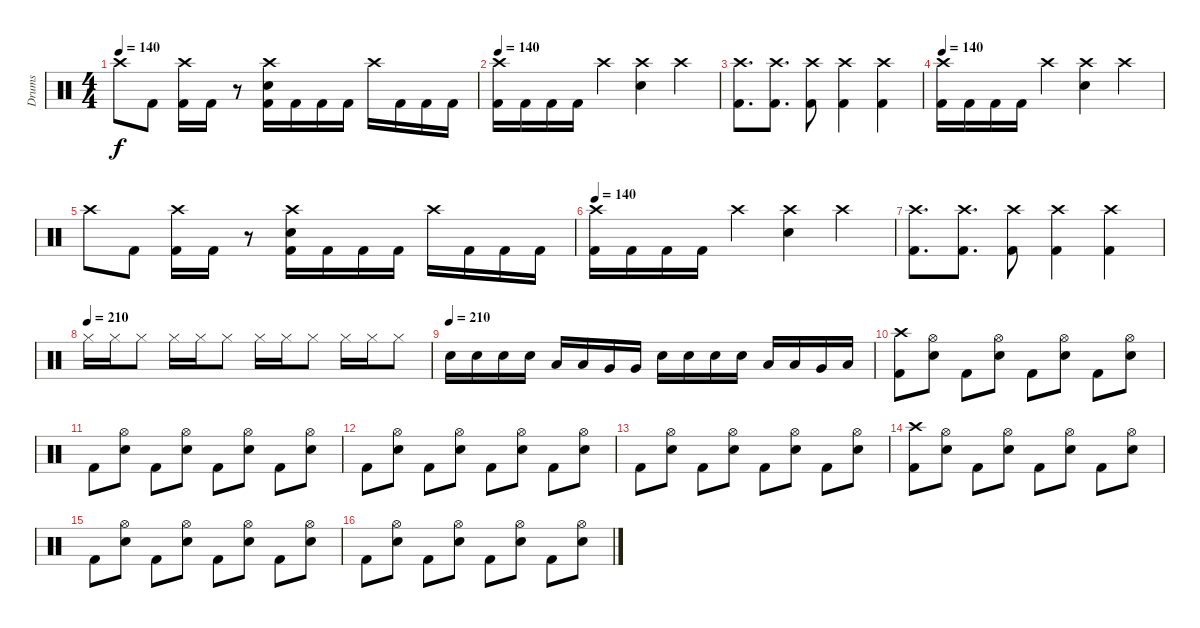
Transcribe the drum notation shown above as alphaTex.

\track ("Drums" "Drums") {instrument percussion}
\staff {score}
\articulation defaults
\ts (4 4)
\tempo 140
\clef neutral
\ks c "Crash high (hit)".8{dy f} "Kick (hit) 2".8
("Crash high (hit)" "Kick (hit) 2").16 "Kick (hit) 2".16 r.8 ("Crash high (hit)" "Electric Snare (hit)" "Kick (hit) 2").16 "Kick (hit) 2".16 "Kick (hit) 2".16 "Kick (hit) 2".16 "Crash high (hit)".16 "Kick (hit) 2".16 "Kick (hit) 2".16 "Kick (hit) 2".16 |
\tempo 140
("Crash high (hit)" "Kick (hit) 2").16 "Kick (hit) 2".16 "Kick (hit) 2".16 "Kick (hit) 2".16 "Crash high (hit)".4 ("Crash high (hit)" "Electric Snare (hit)").4 "Crash high (hit)".4 |
("Crash high (hit)" "Kick (hit) 2").8{d} ("Crash high (hit)" "Kick (hit) 2").8{d} ("Crash high (hit)" "Kick (hit) 2").8 ("Crash high (hit)" "Kick (hit) 2").4 ("Crash high (hit)" "Kick (hit) 2").4 |
\tempo 140
("Crash high (hit)" "Kick (hit) 2").16 "Kick (hit) 2".16 "Kick (hit) 2".16 "Kick (hit) 2".16 "Crash high (hit)".4 ("Crash high (hit)" "Electric Snare (hit)").4 "Crash high (hit)".4 |
"Crash high (hit)".8 "Kick (hit) 2".8 ("Crash high (hit)" "Kick (hit) 2").16 "Kick (hit) 2".16 r.8 ("Crash high (hit)" "Electric Snare (hit)" "Kick (hit) 2").16 "Kick (hit) 2".16 "Kick (hit) 2".16 "Kick (hit) 2".16 "Crash high (hit)".16 "Kick (hit) 2".16 "Kick (hit) 2".16 "Kick (hit) 2".16 |
\tempo 140
("Crash high (hit)" "Kick (hit) 2").16 "Kick (hit) 2".16 "Kick (hit) 2".16 "Kick (hit) 2".16 "Crash high (hit)".4 ("Crash high (hit)" "Electric Snare (hit)").4 "Crash high (hit)".4 |
("Crash high (hit)" "Kick (hit) 2").8{d} ("Crash high (hit)" "Kick (hit) 2").8{d} ("Crash high (hit)" "Kick (hit) 2").8 ("Crash high (hit)" "Kick (hit) 2").4 ("Crash high (hit)" "Kick (hit) 2").4 |
\tempo (210)
"Hi-Hat (closed)".16 "Hi-Hat (closed)".16 "Hi-Hat (closed)".8 "Hi-Hat (closed)".16 "Hi-Hat (closed)".16 "Hi-Hat (closed)".8 "Hi-Hat (closed)".16 "Hi-Hat (closed)".16 "Hi-Hat (closed)".8 "Hi-Hat (closed)".16 "Hi-Hat (closed)".16 "Hi-Hat (closed)".8 |
\tempo (210)
"Electric Snare (hit)".16 "Electric Snare (hit)".16 "Electric Snare (hit)".16 "Electric Snare (hit)".16 "Low Tom (hit)".16 "Low Tom (hit)".16 "Very Low Tom (hit)".16 "Very Low Tom (hit)".16 "Electric Snare (hit)".16 "Electric Snare (hit)".16 "Electric Snare (hit)".16 "Electric Snare (hit)".16 "Low Tom (hit)".16 "Low Tom (hit)".16 "Very Low Tom (hit)".16 "Low Floor Tom (hit)".16 |
("Crash high (hit)" "Kick (hit) 2").8 ("Hi-Hat (open)" "Electric Snare (hit)").8 "Kick (hit) 2".8 ("Hi-Hat (open)" "Electric Snare (hit)").8 "Kick (hit) 2".8 ("Hi-Hat (open)" "Electric Snare (hit)").8 "Kick (hit) 2".8 ("Hi-Hat (open)" "Electric Snare (hit)").8 |
"Kick (hit) 2".8 ("Hi-Hat (open)" "Electric Snare (hit)").8 "Kick (hit) 2".8 ("Hi-Hat (open)" "Electric Snare (hit)").8 "Kick (hit) 2".8 ("Hi-Hat (open)" "Electric Snare (hit)").8 "Kick (hit) 2".8 ("Hi-Hat (open)" "Electric Snare (hit)").8 |
"Kick (hit) 2".8 ("Hi-Hat (open)" "Electric Snare (hit)").8 "Kick (hit) 2".8 ("Hi-Hat (open)" "Electric Snare (hit)").8 "Kick (hit) 2".8 ("Hi-Hat (open)" "Electric Snare (hit)").8 "Kick (hit) 2".8 ("Hi-Hat (open)" "Electric Snare (hit)").8 |
"Kick (hit) 2".8 ("Hi-Hat (open)" "Electric Snare (hit)").8 "Kick (hit) 2".8 ("Hi-Hat (open)" "Electric Snare (hit)").8 "Kick (hit) 2".8 ("Hi-Hat (open)" "Electric Snare (hit)").8 "Kick (hit) 2".8 ("Hi-Hat (open)" "Electric Snare (hit)").8 |
("Crash high (hit)" "Kick (hit) 2").8 ("Hi-Hat (open)" "Electric Snare (hit)").8 "Kick (hit) 2".8 ("Hi-Hat (open)" "Electric Snare (hit)").8 "Kick (hit) 2".8 ("Hi-Hat (open)" "Electric Snare (hit)").8 "Kick (hit) 2".8 ("Hi-Hat (open)" "Electric Snare (hit)").8 |
"Kick (hit) 2".8 ("Hi-Hat (open)" "Electric Snare (hit)").8 "Kick (hit) 2".8 ("Hi-Hat (open)" "Electric Snare (hit)").8 "Kick (hit) 2".8 ("Hi-Hat (open)" "Electric Snare (hit)").8 "Kick (hit) 2".8 ("Hi-Hat (open)" "Electric Snare (hit)").8 |
"Kick (hit) 2".8 ("Hi-Hat (open)" "Electric Snare (hit)").8 "Kick (hit) 2".8 ("Hi-Hat (open)" "Electric Snare (hit)").8 "Kick (hit) 2".8 ("Hi-Hat (open)" "Electric Snare (hit)").8 "Kick (hit) 2".8 ("Hi-Hat (open)" "Electric Snare (hit)").8
